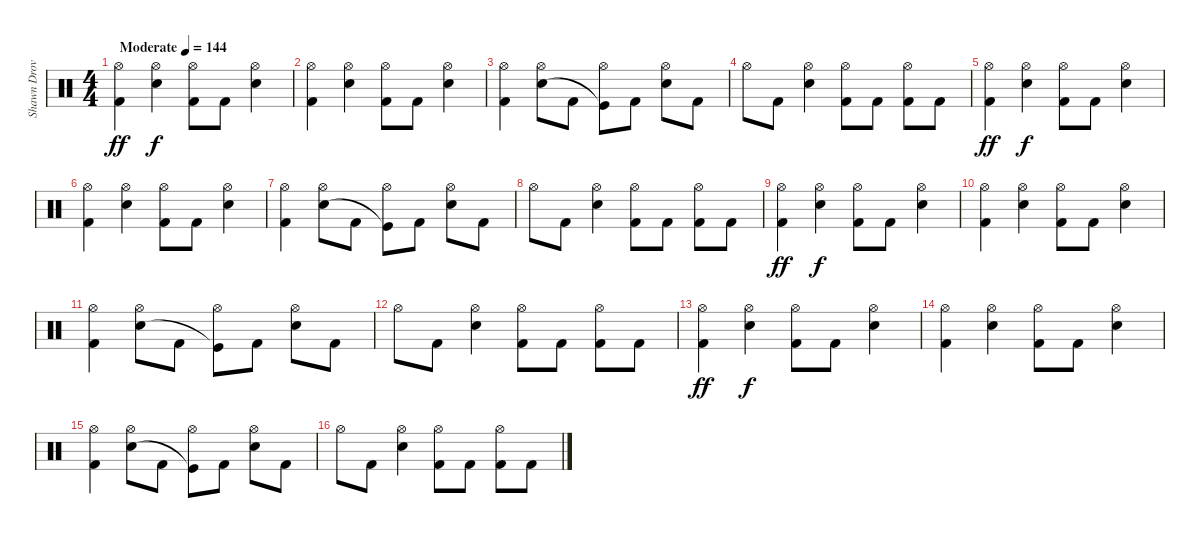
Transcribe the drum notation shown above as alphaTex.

\track ("Shawn Drover" "Shawn Drov") {instrument percussion}
\staff {score}
\articulation defaults
\ts (4 4)
\tempo (144 "Moderate")
\clef neutral
\ks c
("Hi-Hat (open)" "Kick (hit) 2").4{dy ff} ("Hi-Hat (open)" "Electric Snare (hit)").4{dy f} ("Hi-Hat (open)" "Kick (hit) 2").8 "Kick (hit) 2".8 ("Hi-Hat (open)" "Electric Snare (hit)").4 |
("Hi-Hat (open)" "Kick (hit) 2").4 ("Hi-Hat (open)" "Electric Snare (hit)").4 ("Hi-Hat (open)" "Kick (hit) 2").8 "Kick (hit) 2".8 ("Hi-Hat (open)" "Electric Snare (hit)").4 |
("Hi-Hat (open)" "Kick (hit) 2").4 ("Hi-Hat (open)" "Electric Snare (hit)").8 "Kick (hit) 2".8 ("Hi-Hat (open)" "Kick (hit)"{t}).8 "Kick (hit) 2".8 ("Hi-Hat (open)" "Electric Snare (hit)").8 "Kick (hit) 2".8 |
"Hi-Hat (open)".8 "Kick (hit) 2".8 ("Hi-Hat (open)" "Electric Snare (hit)").4 ("Hi-Hat (open)" "Kick (hit) 2").8 "Kick (hit) 2".8 ("Hi-Hat (open)" "Kick (hit) 2").8 "Kick (hit) 2".8 |
("Hi-Hat (open)" "Kick (hit) 2").4{dy ff} ("Hi-Hat (open)" "Electric Snare (hit)").4{dy f} ("Hi-Hat (open)" "Kick (hit) 2").8 "Kick (hit) 2".8 ("Hi-Hat (open)" "Electric Snare (hit)").4 |
("Hi-Hat (open)" "Kick (hit) 2").4 ("Hi-Hat (open)" "Electric Snare (hit)").4 ("Hi-Hat (open)" "Kick (hit) 2").8 "Kick (hit) 2".8 ("Hi-Hat (open)" "Electric Snare (hit)").4 |
("Hi-Hat (open)" "Kick (hit) 2").4 ("Hi-Hat (open)" "Electric Snare (hit)").8 "Kick (hit) 2".8 ("Hi-Hat (open)" "Kick (hit)"{t}).8 "Kick (hit) 2".8 ("Hi-Hat (open)" "Electric Snare (hit)").8 "Kick (hit) 2".8 |
"Hi-Hat (open)".8 "Kick (hit) 2".8 ("Hi-Hat (open)" "Snare (hit) 2").4 ("Hi-Hat (open)" "Kick (hit) 2").8 "Kick (hit) 2".8 ("Hi-Hat (open)" "Kick (hit) 2").8 "Kick (hit) 2".8 |
("Hi-Hat (open)" "Kick (hit) 2").4{dy ff} ("Hi-Hat (open)" "Electric Snare (hit)").4{dy f} ("Hi-Hat (open)" "Kick (hit) 2").8 "Kick (hit) 2".8 ("Hi-Hat (open)" "Electric Snare (hit)").4 |
("Hi-Hat (open)" "Kick (hit) 2").4 ("Hi-Hat (open)" "Electric Snare (hit)").4 ("Hi-Hat (open)" "Kick (hit) 2").8 "Kick (hit) 2".8 ("Hi-Hat (open)" "Electric Snare (hit)").4 |
("Hi-Hat (open)" "Kick (hit) 2").4 ("Hi-Hat (open)" "Electric Snare (hit)").8 "Kick (hit) 2".8 ("Hi-Hat (open)" "Kick (hit)"{t}).8 "Kick (hit) 2".8 ("Hi-Hat (open)" "Electric Snare (hit)").8 "Kick (hit) 2".8 |
"Hi-Hat (open)".8 "Kick (hit) 2".8 ("Hi-Hat (open)" "Electric Snare (hit)").4 ("Hi-Hat (open)" "Kick (hit) 2").8 "Kick (hit) 2".8 ("Hi-Hat (open)" "Kick (hit) 2").8 "Kick (hit) 2".8 |
("Hi-Hat (open)" "Kick (hit) 2").4{dy ff} ("Hi-Hat (open)" "Electric Snare (hit)").4{dy f} ("Hi-Hat (open)" "Kick (hit) 2").8 "Kick (hit) 2".8 ("Hi-Hat (open)" "Electric Snare (hit)").4 |
("Hi-Hat (open)" "Kick (hit) 2").4 ("Hi-Hat (open)" "Electric Snare (hit)").4 ("Hi-Hat (open)" "Kick (hit) 2").8 "Kick (hit) 2".8 ("Hi-Hat (open)" "Electric Snare (hit)").4 |
("Hi-Hat (open)" "Kick (hit) 2").4 ("Hi-Hat (open)" "Electric Snare (hit)").8 "Kick (hit) 2".8 ("Hi-Hat (open)" "Kick (hit)"{t}).8 "Kick (hit) 2".8 ("Hi-Hat (open)" "Electric Snare (hit)").8 "Kick (hit) 2".8 |
"Hi-Hat (open)".8 "Kick (hit) 2".8 ("Hi-Hat (open)" "Electric Snare (hit)").4 ("Hi-Hat (open)" "Kick (hit) 2").8 "Kick (hit) 2".8 ("Hi-Hat (open)" "Kick (hit) 2").8 "Kick (hit) 2".8
